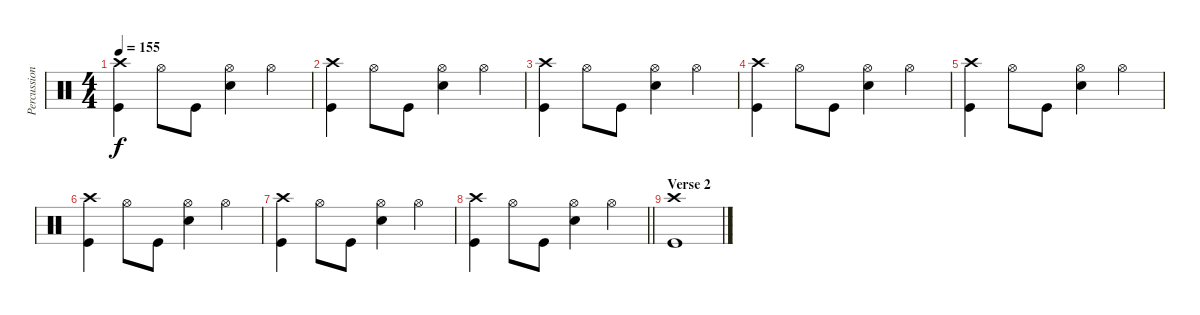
\track ("Percussion" "Percussion") {instrument percussion}
\staff {score}
\articulation defaults
\ts (4 4)
\tempo 155
\clef neutral
\ks c
("Crash high (hit)" "Kick (hit)").4{dy f} "Hi-Hat (open)".8 "Kick (hit)".8 ("Hi-Hat (open)" "Electric Snare (hit)").4 "Hi-Hat (open)".4 |
("Crash high (hit)" "Kick (hit)").4 "Hi-Hat (open)".8 "Kick (hit)".8 ("Hi-Hat (open)" "Electric Snare (hit)").4 "Hi-Hat (open)".4 |
("Crash high (hit)" "Kick (hit)").4 "Hi-Hat (open)".8 "Kick (hit)".8 ("Hi-Hat (open)" "Electric Snare (hit)").4 "Hi-Hat (open)".4 |
("Crash high (hit)" "Kick (hit)").4 "Hi-Hat (open)".8 "Kick (hit)".8 ("Hi-Hat (open)" "Electric Snare (hit)").4 "Hi-Hat (open)".4 |
("Crash high (hit)" "Kick (hit)").4 "Hi-Hat (open)".8 "Kick (hit)".8 ("Hi-Hat (open)" "Electric Snare (hit)").4 "Hi-Hat (open)".4 |
("Crash high (hit)" "Kick (hit)").4 "Hi-Hat (open)".8 "Kick (hit)".8 ("Hi-Hat (open)" "Electric Snare (hit)").4 "Hi-Hat (open)".4 |
("Crash high (hit)" "Kick (hit)").4 "Hi-Hat (open)".8 "Kick (hit)".8 ("Hi-Hat (open)" "Electric Snare (hit)").4 "Hi-Hat (open)".4 |
\barLineRight lightlight
("Crash high (hit)" "Kick (hit)").4 "Hi-Hat (open)".8 "Kick (hit)".8 ("Hi-Hat (open)" "Electric Snare (hit)").4 "Hi-Hat (open)".4 |
\section ("" "Verse 2")
("Crash high (hit)" "Kick (hit)").1
